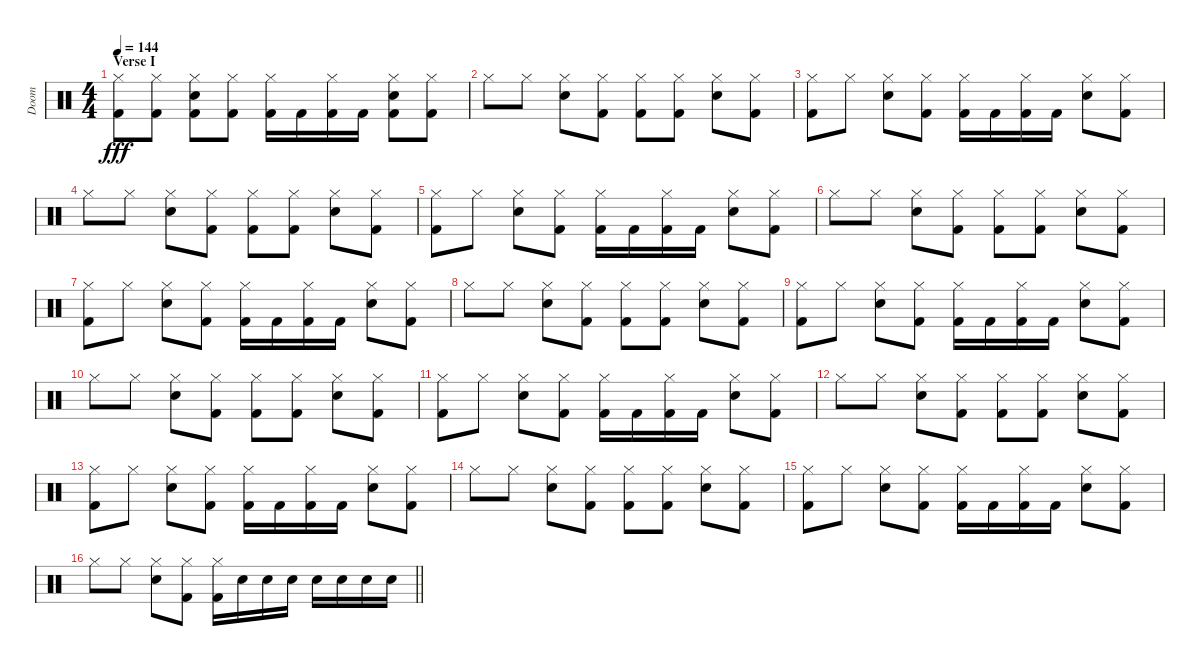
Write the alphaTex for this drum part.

\track ("Doom" "Doom") {instrument percussion}
\staff {score}
\articulation defaults
\ts (4 4)
\section ("" "Verse I")
\tempo 144
\clef neutral
\ks c
("Kick (hit) 2" "Hi-Hat (closed)").8{dy fff} ("Kick (hit) 2" "Hi-Hat (closed)").8 ("Kick (hit) 2" "Hi-Hat (closed)" "Electric Snare (hit)").8 ("Kick (hit) 2" "Hi-Hat (closed)").8 ("Kick (hit) 2" "Hi-Hat (closed)").16 "Kick (hit) 2".16 ("Kick (hit) 2" "Hi-Hat (closed)").16 "Kick (hit) 2".16 ("Kick (hit) 2" "Hi-Hat (closed)" "Electric Snare (hit)").8 ("Kick (hit) 2" "Hi-Hat (closed)").8 |
"Hi-Hat (closed)".8 "Hi-Hat (closed)".8 ("Hi-Hat (closed)" "Electric Snare (hit)").8 ("Kick (hit) 2" "Hi-Hat (closed)").8 ("Kick (hit) 2" "Hi-Hat (closed)").8 ("Hi-Hat (closed)" "Kick (hit) 2").8 ("Hi-Hat (closed)" "Electric Snare (hit)").8 ("Hi-Hat (closed)" "Kick (hit) 2").8 |
("Kick (hit) 2" "Hi-Hat (closed)").8 "Hi-Hat (closed)".8 ("Hi-Hat (closed)" "Electric Snare (hit)").8 ("Kick (hit) 2" "Hi-Hat (closed)").8 ("Kick (hit) 2" "Hi-Hat (closed)").16 "Kick (hit) 2".16 ("Kick (hit) 2" "Hi-Hat (closed)").16 "Kick (hit) 2".16 ("Hi-Hat (closed)" "Electric Snare (hit)").8 ("Kick (hit) 2" "Hi-Hat (closed)").8 |
"Hi-Hat (closed)".8 "Hi-Hat (closed)".8 ("Hi-Hat (closed)" "Electric Snare (hit)").8 ("Kick (hit) 2" "Hi-Hat (closed)").8 ("Kick (hit) 2" "Hi-Hat (closed)").8 ("Hi-Hat (closed)" "Kick (hit) 2").8 ("Hi-Hat (closed)" "Electric Snare (hit)").8 ("Hi-Hat (closed)" "Kick (hit) 2").8 |
("Kick (hit) 2" "Hi-Hat (closed)").8 "Hi-Hat (closed)".8 ("Hi-Hat (closed)" "Electric Snare (hit)").8 ("Kick (hit) 2" "Hi-Hat (closed)").8 ("Kick (hit) 2" "Hi-Hat (closed)").16 "Kick (hit) 2".16 ("Kick (hit) 2" "Hi-Hat (closed)").16 "Kick (hit) 2".16 ("Hi-Hat (closed)" "Electric Snare (hit)").8 ("Kick (hit) 2" "Hi-Hat (closed)").8 |
"Hi-Hat (closed)".8 "Hi-Hat (closed)".8 ("Hi-Hat (closed)" "Electric Snare (hit)").8 ("Kick (hit) 2" "Hi-Hat (closed)").8 ("Kick (hit) 2" "Hi-Hat (closed)").8 ("Hi-Hat (closed)" "Kick (hit) 2").8 ("Hi-Hat (closed)" "Electric Snare (hit)").8 ("Hi-Hat (closed)" "Kick (hit) 2").8 |
("Kick (hit) 2" "Hi-Hat (closed)").8 "Hi-Hat (closed)".8 ("Hi-Hat (closed)" "Electric Snare (hit)").8 ("Kick (hit) 2" "Hi-Hat (closed)").8 ("Kick (hit) 2" "Hi-Hat (closed)").16 "Kick (hit) 2".16 ("Kick (hit) 2" "Hi-Hat (closed)").16 "Kick (hit) 2".16 ("Hi-Hat (closed)" "Electric Snare (hit)").8 ("Kick (hit) 2" "Hi-Hat (closed)").8 |
"Hi-Hat (closed)".8 "Hi-Hat (closed)".8 ("Hi-Hat (closed)" "Electric Snare (hit)").8 ("Kick (hit) 2" "Hi-Hat (closed)").8 ("Kick (hit) 2" "Hi-Hat (closed)").8 ("Hi-Hat (closed)" "Kick (hit) 2").8 ("Hi-Hat (closed)" "Electric Snare (hit)").8 ("Hi-Hat (closed)" "Kick (hit) 2").8 |
("Kick (hit) 2" "Hi-Hat (closed)").8 "Hi-Hat (closed)".8 ("Hi-Hat (closed)" "Electric Snare (hit)").8 ("Kick (hit) 2" "Hi-Hat (closed)").8 ("Kick (hit) 2" "Hi-Hat (closed)").16 "Kick (hit) 2".16 ("Kick (hit) 2" "Hi-Hat (closed)").16 "Kick (hit) 2".16 ("Hi-Hat (closed)" "Electric Snare (hit)").8 ("Kick (hit) 2" "Hi-Hat (closed)").8 |
"Hi-Hat (closed)".8 "Hi-Hat (closed)".8 ("Hi-Hat (closed)" "Electric Snare (hit)").8 ("Kick (hit) 2" "Hi-Hat (closed)").8 ("Kick (hit) 2" "Hi-Hat (closed)").8 ("Hi-Hat (closed)" "Kick (hit) 2").8 ("Hi-Hat (closed)" "Electric Snare (hit)").8 ("Hi-Hat (closed)" "Kick (hit) 2").8 |
("Kick (hit) 2" "Hi-Hat (closed)").8 "Hi-Hat (closed)".8 ("Hi-Hat (closed)" "Electric Snare (hit)").8 ("Kick (hit) 2" "Hi-Hat (closed)").8 ("Kick (hit) 2" "Hi-Hat (closed)").16 "Kick (hit) 2".16 ("Kick (hit) 2" "Hi-Hat (closed)").16 "Kick (hit) 2".16 ("Hi-Hat (closed)" "Electric Snare (hit)").8 ("Kick (hit) 2" "Hi-Hat (closed)").8 |
"Hi-Hat (closed)".8 "Hi-Hat (closed)".8 ("Hi-Hat (closed)" "Electric Snare (hit)").8 ("Kick (hit) 2" "Hi-Hat (closed)").8 ("Kick (hit) 2" "Hi-Hat (closed)").8 ("Hi-Hat (closed)" "Kick (hit) 2").8 ("Hi-Hat (closed)" "Electric Snare (hit)").8 ("Hi-Hat (closed)" "Kick (hit) 2").8 |
("Kick (hit) 2" "Hi-Hat (closed)").8 "Hi-Hat (closed)".8 ("Hi-Hat (closed)" "Electric Snare (hit)").8 ("Kick (hit) 2" "Hi-Hat (closed)").8 ("Kick (hit) 2" "Hi-Hat (closed)").16 "Kick (hit) 2".16 ("Kick (hit) 2" "Hi-Hat (closed)").16 "Kick (hit) 2".16 ("Hi-Hat (closed)" "Electric Snare (hit)").8 ("Kick (hit) 2" "Hi-Hat (closed)").8 |
"Hi-Hat (closed)".8 "Hi-Hat (closed)".8 ("Hi-Hat (closed)" "Electric Snare (hit)").8 ("Kick (hit) 2" "Hi-Hat (closed)").8 ("Kick (hit) 2" "Hi-Hat (closed)").8 ("Hi-Hat (closed)" "Kick (hit) 2").8 ("Hi-Hat (closed)" "Electric Snare (hit)").8 ("Hi-Hat (closed)" "Kick (hit) 2").8 |
("Kick (hit) 2" "Hi-Hat (closed)").8 "Hi-Hat (closed)".8 ("Hi-Hat (closed)" "Electric Snare (hit)").8 ("Kick (hit) 2" "Hi-Hat (closed)").8 ("Kick (hit) 2" "Hi-Hat (closed)").16 "Kick (hit) 2".16 ("Kick (hit) 2" "Hi-Hat (closed)").16 "Kick (hit) 2".16 ("Hi-Hat (closed)" "Electric Snare (hit)").8 ("Kick (hit) 2" "Hi-Hat (closed)").8 |
\barLineRight lightlight "Hi-Hat (closed)".8 "Hi-Hat (closed)".8
("Hi-Hat (closed)" "Electric Snare (hit)").8 ("Kick (hit) 2" "Hi-Hat (closed)").8 ("Kick (hit) 2" "Hi-Hat (closed)").16 "Electric Snare (hit)".16 "Electric Snare (hit)".16 "Electric Snare (hit)".16 "Electric Snare (hit)".16 "Electric Snare (hit)".16 "Electric Snare (hit)".16 "Electric Snare (hit)".16
